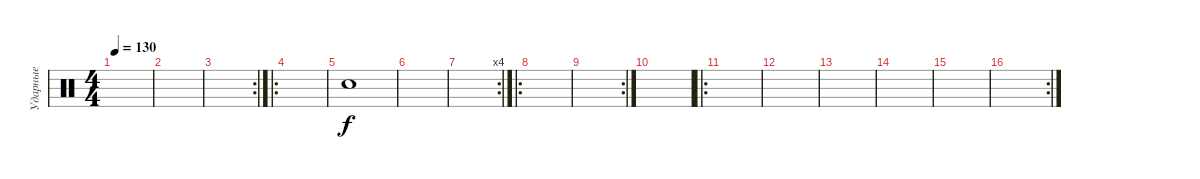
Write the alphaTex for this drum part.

\track ("Ударные" "Ударные") {instrument percussion}
\staff {score}
\articulation defaults
\ts (4 4)
\tempo 130
\clef neutral
\ks c
|
|
\rc 2
|
\ro
|
"Electric Snare (hit)".1 |
|
\rc 4
|
\ro
|
\rc 2
|
|
\ro
|
|
|
|
|
\rc 2
